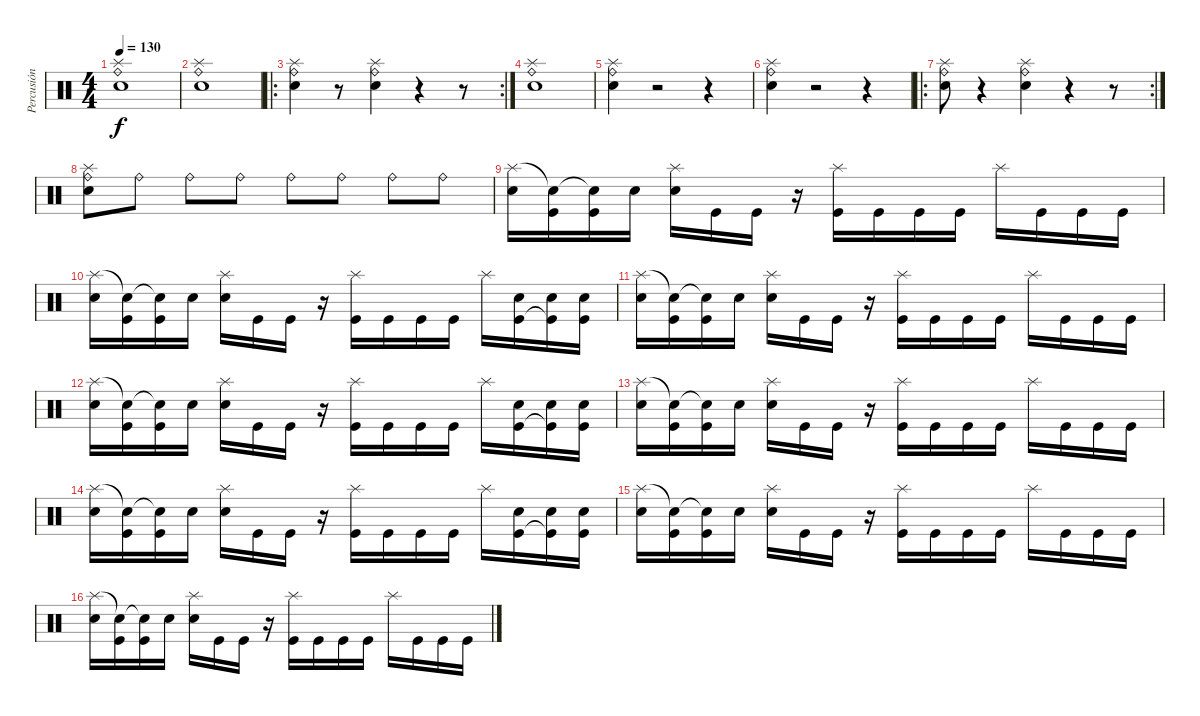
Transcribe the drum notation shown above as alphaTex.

\track ("Percusión" "Percusión") {instrument percussion}
\staff {score}
\articulation defaults
\ts (4 4)
\tempo 130
\clef neutral
\ks c
("Ride (bell)" "Splash (hit)" "Snare (hit) 2").1{dy f} |
("Ride (bell)" "Splash (hit)" "Snare (hit) 2").1 |
\ro
\rc 2
("Ride (bell)" "Splash (hit)" "Snare (hit) 2").4 r.8 ("Ride (bell)" "Splash (hit)" "Snare (hit) 2").4 r.4 r.8 |
("Ride (bell)" "Splash (hit)" "Snare (hit) 2").1 |
("Ride (bell)" "Splash (hit)" "Snare (hit) 2").4 r.2 r.4 |
("Ride (bell)" "Splash (hit)" "Snare (hit) 2").4 r.2 r.4 |
\ro
\rc 2
("Ride (bell)" "Splash (hit)" "Snare (hit) 2").8 r.4 ("Ride (bell)" "Splash (hit)" "Snare (hit) 2").4 r.4 r.8 |
("Ride (bell)" "Splash (hit)" "Snare (hit) 2").8 "Ride (bell)".8 "Ride (bell)".8 "Ride (bell)".8 "Ride (bell)".8 "Ride (bell)".8 "Ride (bell)".8 "Ride (bell)".8 |
("Splash (hit)" "Snare (hit) 2").16 ("Snare (hit) 2"{t} "Kick (hit)").16 ("Snare (hit) 2"{t} "Kick (hit)").16 "Snare (hit) 2".16 ("Splash (hit)" "Snare (hit) 2").16 "Kick (hit)".16 "Kick (hit)".16 r.16 ("Splash (hit)" "Kick (hit)").16 "Kick (hit)".16 "Kick (hit)".16 "Kick (hit)".16 "Splash (hit)".16 "Kick (hit)".16 "Kick (hit)".16 "Kick (hit)".16 |
("Splash (hit)" "Snare (hit) 2").16 ("Snare (hit) 2"{t} "Kick (hit)").16 ("Snare (hit) 2"{t} "Kick (hit)").16 "Snare (hit) 2".16 ("Splash (hit)" "Snare (hit) 2").16 "Kick (hit)".16 "Kick (hit)".16 r.16 ("Splash (hit)" "Kick (hit)").16 "Kick (hit)".16 "Kick (hit)".16 "Kick (hit)".16 "Splash (hit)".16 ("Snare (hit) 2" "Kick (hit)").16 ("Snare (hit) 2" "Kick (hit)"{t}).16 ("Snare (hit) 2" "Kick (hit)").16 |
("Splash (hit)" "Snare (hit) 2").16 ("Snare (hit) 2"{t} "Kick (hit)").16 ("Snare (hit) 2"{t} "Kick (hit)").16 "Snare (hit) 2".16 ("Splash (hit)" "Snare (hit) 2").16 "Kick (hit)".16 "Kick (hit)".16 r.16 ("Splash (hit)" "Kick (hit)").16 "Kick (hit)".16 "Kick (hit)".16 "Kick (hit)".16 "Splash (hit)".16 "Kick (hit)".16 "Kick (hit)".16 "Kick (hit)".16 |
("Splash (hit)" "Snare (hit) 2").16 ("Snare (hit) 2"{t} "Kick (hit)").16 ("Snare (hit) 2"{t} "Kick (hit)").16 "Snare (hit) 2".16 ("Splash (hit)" "Snare (hit) 2").16 "Kick (hit)".16 "Kick (hit)".16 r.16 ("Splash (hit)" "Kick (hit)").16 "Kick (hit)".16 "Kick (hit)".16 "Kick (hit)".16 "Splash (hit)".16 ("Snare (hit) 2" "Kick (hit)").16 ("Snare (hit) 2" "Kick (hit)"{t}).16 ("Snare (hit) 2" "Kick (hit)").16 |
("Splash (hit)" "Snare (hit) 2").16 ("Snare (hit) 2"{t} "Kick (hit)").16 ("Snare (hit) 2"{t} "Kick (hit)").16 "Snare (hit) 2".16 ("Splash (hit)" "Snare (hit) 2").16 "Kick (hit)".16 "Kick (hit)".16 r.16 ("Splash (hit)" "Kick (hit)").16 "Kick (hit)".16 "Kick (hit)".16 "Kick (hit)".16 "Splash (hit)".16 "Kick (hit)".16 "Kick (hit)".16 "Kick (hit)".16 |
("Splash (hit)" "Snare (hit) 2").16 ("Snare (hit) 2"{t} "Kick (hit)").16 ("Snare (hit) 2"{t} "Kick (hit)").16 "Snare (hit) 2".16 ("Splash (hit)" "Snare (hit) 2").16 "Kick (hit)".16 "Kick (hit)".16 r.16 ("Splash (hit)" "Kick (hit)").16 "Kick (hit)".16 "Kick (hit)".16 "Kick (hit)".16 "Splash (hit)".16 ("Snare (hit) 2" "Kick (hit)").16 ("Snare (hit) 2" "Kick (hit)"{t}).16 ("Snare (hit) 2" "Kick (hit)").16 |
("Splash (hit)" "Snare (hit) 2").16 ("Snare (hit) 2"{t} "Kick (hit)").16 ("Snare (hit) 2"{t} "Kick (hit)").16 "Snare (hit) 2".16 ("Splash (hit)" "Snare (hit) 2").16 "Kick (hit)".16 "Kick (hit)".16 r.16 ("Splash (hit)" "Kick (hit)").16 "Kick (hit)".16 "Kick (hit)".16 "Kick (hit)".16 "Splash (hit)".16 "Kick (hit)".16 "Kick (hit)".16 "Kick (hit)".16 |
("Splash (hit)" "Snare (hit) 2").16 ("Snare (hit) 2"{t} "Kick (hit)").16 ("Snare (hit) 2"{t} "Kick (hit)").16 "Snare (hit) 2".16 ("Splash (hit)" "Snare (hit) 2").16 "Kick (hit)".16 "Kick (hit)".16 r.16 ("Splash (hit)" "Kick (hit)").16 "Kick (hit)".16 "Kick (hit)".16 "Kick (hit)".16 "Splash (hit)".16 "Kick (hit)".16 "Kick (hit)".16 "Kick (hit)".16
